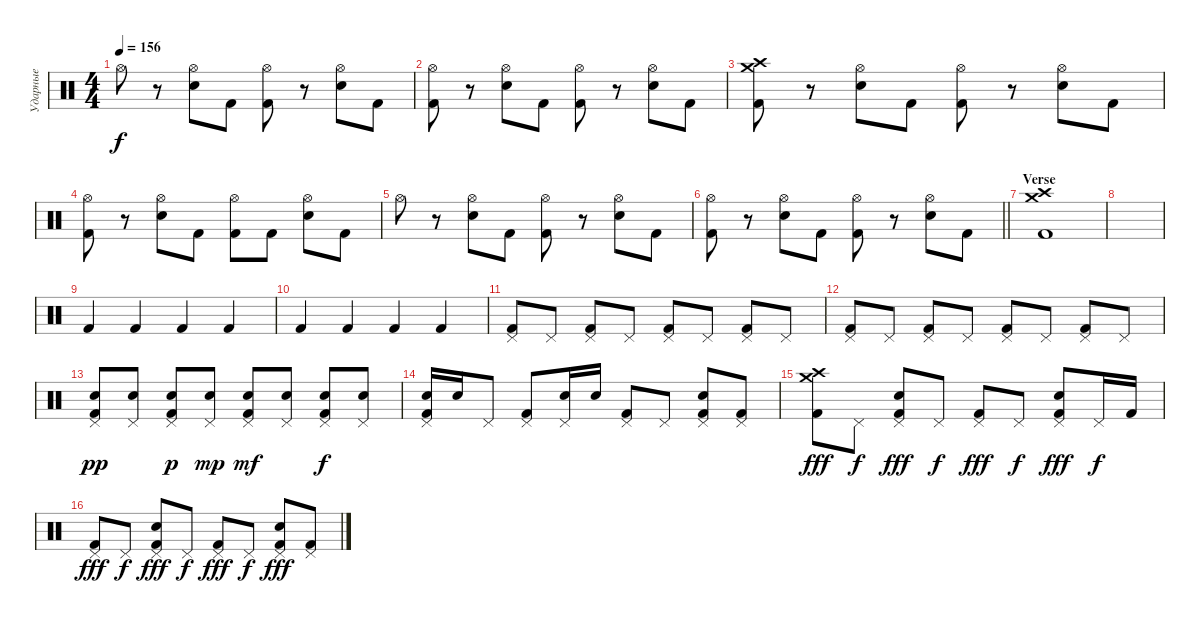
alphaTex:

\track ("Ударные" "Ударные") {instrument percussion}
\staff {score}
\articulation defaults
\ts (4 4)
\tempo 156
\clef neutral
\ks c "Hi-Hat (open)".8{dy f}
r.8 ("Hi-Hat (open)" "Electric Snare (hit)").8 "Kick (hit) 2".8 ("Hi-Hat (open)" "Kick (hit) 2").8 r.8 ("Hi-Hat (open)" "Electric Snare (hit)").8 "Kick (hit) 2".8 |
("Hi-Hat (open)" "Kick (hit) 2").8 r.8 ("Hi-Hat (open)" "Electric Snare (hit)").8 "Kick (hit) 2".8 ("Hi-Hat (open)" "Kick (hit) 2").8 r.8 ("Hi-Hat (open)" "Electric Snare (hit)").8 "Kick (hit) 2".8 |
("Crash medium (hit)" "Crash high (hit)" "Kick (hit) 2").8 r.8 ("Hi-Hat (open)" "Electric Snare (hit)").8 "Kick (hit) 2".8 ("Hi-Hat (open)" "Kick (hit) 2").8 r.8 ("Hi-Hat (open)" "Electric Snare (hit)").8 "Kick (hit) 2".8 |
("Hi-Hat (open)" "Kick (hit) 2").8 r.8 ("Hi-Hat (open)" "Electric Snare (hit)").8 "Kick (hit) 2".8 ("Hi-Hat (open)" "Kick (hit) 2").8 "Kick (hit) 2".8 ("Hi-Hat (open)" "Electric Snare (hit)").8 "Kick (hit) 2".8 |
"Hi-Hat (open)".8 r.8 ("Hi-Hat (open)" "Electric Snare (hit)").8 "Kick (hit) 2".8 ("Hi-Hat (open)" "Kick (hit) 2").8 r.8 ("Hi-Hat (open)" "Electric Snare (hit)").8 "Kick (hit) 2".8 |
\barLineRight lightlight
("Hi-Hat (open)" "Kick (hit) 2").8 r.8 ("Hi-Hat (open)" "Electric Snare (hit)").8 "Kick (hit) 2".8 ("Hi-Hat (open)" "Kick (hit) 2").8 r.8 ("Hi-Hat (open)" "Electric Snare (hit)").8 "Kick (hit) 2".8 |
\section ("" "Verse")
("Crash medium (hit)" "Crash high (hit)" "Kick (hit) 2").1 |
|
"Kick (hit) 2".4 "Kick (hit) 2".4 "Kick (hit) 2".4 "Kick (hit) 2".4 |
"Kick (hit) 2".4 "Kick (hit) 2".4 "Kick (hit) 2".4 "Kick (hit) 2".4 |
("Pedal Hi-Hat (hit)" "Kick (hit) 2").8 "Pedal Hi-Hat (hit)".8 ("Pedal Hi-Hat (hit)" "Kick (hit) 2").8 "Pedal Hi-Hat (hit)".8 ("Pedal Hi-Hat (hit)" "Kick (hit) 2").8 "Pedal Hi-Hat (hit)".8 ("Pedal Hi-Hat (hit)" "Kick (hit) 2").8 "Pedal Hi-Hat (hit)".8 |
("Pedal Hi-Hat (hit)" "Kick (hit) 2").8 "Pedal Hi-Hat (hit)".8 ("Pedal Hi-Hat (hit)" "Kick (hit) 2").8 "Pedal Hi-Hat (hit)".8 ("Pedal Hi-Hat (hit)" "Kick (hit) 2").8 "Pedal Hi-Hat (hit)".8 ("Pedal Hi-Hat (hit)" "Kick (hit) 2").8 "Pedal Hi-Hat (hit)".8 |
("Pedal Hi-Hat (hit)" "Electric Snare (hit)" "Kick (hit) 2").8{dy pp} ("Pedal Hi-Hat (hit)" "Electric Snare (hit)").8 ("Pedal Hi-Hat (hit)" "Electric Snare (hit)" "Kick (hit) 2").8{dy p} ("Pedal Hi-Hat (hit)" "Electric Snare (hit)").8{dy mp} ("Pedal Hi-Hat (hit)" "Electric Snare (hit)" "Kick (hit) 2").8{dy mf} ("Pedal Hi-Hat (hit)" "Electric Snare (hit)").8 ("Pedal Hi-Hat (hit)" "Electric Snare (hit)" "Kick (hit) 2").8{dy f} ("Pedal Hi-Hat (hit)" "Electric Snare (hit)").8 |
("Pedal Hi-Hat (hit)" "Electric Snare (hit)" "Kick (hit) 2").16 "Electric Snare (hit)".16 "Pedal Hi-Hat (hit)".8 ("Pedal Hi-Hat (hit)" "Kick (hit) 2").8 ("Pedal Hi-Hat (hit)" "Electric Snare (hit)").16 "Electric Snare (hit)".16 ("Pedal Hi-Hat (hit)" "Kick (hit) 2").8 "Pedal Hi-Hat (hit)".8 ("Pedal Hi-Hat (hit)" "Electric Snare (hit)" "Kick (hit) 2").8 ("Pedal Hi-Hat (hit)" "Kick (hit) 2").8 |
("Crash medium (hit)" "Crash high (hit)" "Kick (hit) 2").8{dy fff} "Pedal Hi-Hat (hit)".8{dy f} ("Pedal Hi-Hat (hit)" "Electric Snare (hit)" "Kick (hit) 2").8{dy fff} "Pedal Hi-Hat (hit)".8{dy f} ("Pedal Hi-Hat (hit)" "Kick (hit) 2").8{dy fff} "Pedal Hi-Hat (hit)".8{dy f} ("Pedal Hi-Hat (hit)" "Electric Snare (hit)" "Kick (hit) 2").8{dy fff} "Pedal Hi-Hat (hit)".16{dy f} "Kick (hit) 2".16 |
("Pedal Hi-Hat (hit)" "Kick (hit) 2").8{dy fff} "Pedal Hi-Hat (hit)".8{dy f} ("Pedal Hi-Hat (hit)" "Electric Snare (hit)" "Kick (hit) 2").8{dy fff} "Pedal Hi-Hat (hit)".8{dy f} ("Pedal Hi-Hat (hit)" "Kick (hit) 2").8{dy fff} "Pedal Hi-Hat (hit)".8{dy f} ("Pedal Hi-Hat (hit)" "Electric Snare (hit)" "Kick (hit) 2").8{dy fff} ("Pedal Hi-Hat (hit)" "Kick (hit) 2").8
